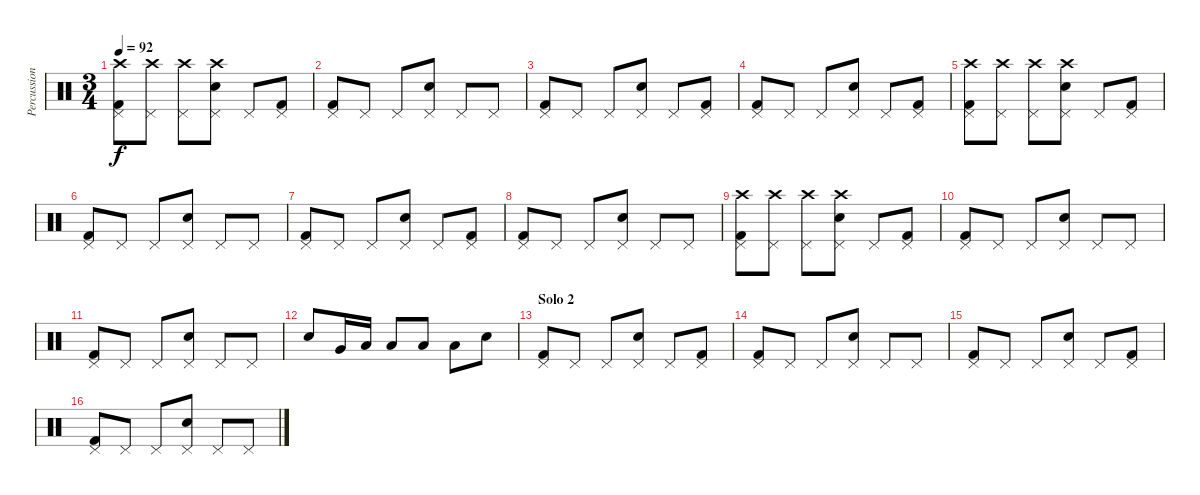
\track ("Percussion" "Percussion") {instrument percussion}
\staff {score}
\articulation defaults
\ts (3 4)
\tempo 92
\clef neutral
\ks c
("Pedal Hi-Hat (hit)" "Kick (hit) 2" "Crash high (hit)").8{dy f} ("Pedal Hi-Hat (hit)" "Crash high (hit)").8 ("Pedal Hi-Hat (hit)" "Crash high (hit)").8 ("Pedal Hi-Hat (hit)" "Electric Snare (hit)" "Crash high (hit)").8 "Pedal Hi-Hat (hit)".8 ("Pedal Hi-Hat (hit)" "Kick (hit) 2").8 |
("Pedal Hi-Hat (hit)" "Kick (hit) 2").8 "Pedal Hi-Hat (hit)".8 "Pedal Hi-Hat (hit)".8 ("Pedal Hi-Hat (hit)" "Electric Snare (hit)").8 "Pedal Hi-Hat (hit)".8 "Pedal Hi-Hat (hit)".8 |
("Pedal Hi-Hat (hit)" "Kick (hit) 2").8 "Pedal Hi-Hat (hit)".8 "Pedal Hi-Hat (hit)".8 ("Pedal Hi-Hat (hit)" "Electric Snare (hit)").8 "Pedal Hi-Hat (hit)".8 ("Pedal Hi-Hat (hit)" "Kick (hit) 2").8 |
("Pedal Hi-Hat (hit)" "Kick (hit) 2").8 "Pedal Hi-Hat (hit)".8 "Pedal Hi-Hat (hit)".8 ("Pedal Hi-Hat (hit)" "Electric Snare (hit)").8 "Pedal Hi-Hat (hit)".8 ("Pedal Hi-Hat (hit)" "Kick (hit) 2").8 |
("Pedal Hi-Hat (hit)" "Kick (hit) 2" "Crash high (hit)").8 ("Pedal Hi-Hat (hit)" "Crash high (hit)").8 ("Pedal Hi-Hat (hit)" "Crash high (hit)").8 ("Pedal Hi-Hat (hit)" "Electric Snare (hit)" "Crash high (hit)").8 "Pedal Hi-Hat (hit)".8 ("Pedal Hi-Hat (hit)" "Kick (hit) 2").8 |
("Pedal Hi-Hat (hit)" "Kick (hit) 2").8 "Pedal Hi-Hat (hit)".8 "Pedal Hi-Hat (hit)".8 ("Pedal Hi-Hat (hit)" "Electric Snare (hit)").8 "Pedal Hi-Hat (hit)".8 "Pedal Hi-Hat (hit)".8 |
("Pedal Hi-Hat (hit)" "Kick (hit) 2").8 "Pedal Hi-Hat (hit)".8 "Pedal Hi-Hat (hit)".8 ("Pedal Hi-Hat (hit)" "Electric Snare (hit)").8 "Pedal Hi-Hat (hit)".8 ("Pedal Hi-Hat (hit)" "Kick (hit) 2").8 |
("Pedal Hi-Hat (hit)" "Kick (hit) 2").8 "Pedal Hi-Hat (hit)".8 "Pedal Hi-Hat (hit)".8 ("Pedal Hi-Hat (hit)" "Electric Snare (hit)").8 "Pedal Hi-Hat (hit)".8 "Pedal Hi-Hat (hit)".8 |
("Pedal Hi-Hat (hit)" "Kick (hit) 2" "Crash high (hit)").8 ("Pedal Hi-Hat (hit)" "Crash high (hit)").8 ("Pedal Hi-Hat (hit)" "Crash high (hit)").8 ("Pedal Hi-Hat (hit)" "Electric Snare (hit)" "Crash high (hit)").8 "Pedal Hi-Hat (hit)".8 ("Pedal Hi-Hat (hit)" "Kick (hit) 2").8 |
("Pedal Hi-Hat (hit)" "Kick (hit) 2").8 "Pedal Hi-Hat (hit)".8 "Pedal Hi-Hat (hit)".8 ("Pedal Hi-Hat (hit)" "Electric Snare (hit)").8 "Pedal Hi-Hat (hit)".8 "Pedal Hi-Hat (hit)".8 |
("Pedal Hi-Hat (hit)" "Kick (hit) 2").8 "Pedal Hi-Hat (hit)".8 "Pedal Hi-Hat (hit)".8 ("Pedal Hi-Hat (hit)" "Electric Snare (hit)").8 "Pedal Hi-Hat (hit)".8 "Pedal Hi-Hat (hit)".8 |
"Electric Snare (hit)".8 "Very Low Tom (hit)".16 "Low Tom (hit)".16 "Low Tom (hit)".8 "Low Tom (hit)".8 "Low Tom (hit)".8 "Snare (hit)".8 |
\section ("" "Solo 2")
("Pedal Hi-Hat (hit)" "Kick (hit) 2").8 "Pedal Hi-Hat (hit)".8 "Pedal Hi-Hat (hit)".8 ("Pedal Hi-Hat (hit)" "Electric Snare (hit)").8 "Pedal Hi-Hat (hit)".8 ("Pedal Hi-Hat (hit)" "Kick (hit) 2").8 |
("Pedal Hi-Hat (hit)" "Kick (hit) 2").8 "Pedal Hi-Hat (hit)".8 "Pedal Hi-Hat (hit)".8 ("Pedal Hi-Hat (hit)" "Electric Snare (hit)").8 "Pedal Hi-Hat (hit)".8 "Pedal Hi-Hat (hit)".8 |
("Pedal Hi-Hat (hit)" "Kick (hit) 2").8 "Pedal Hi-Hat (hit)".8 "Pedal Hi-Hat (hit)".8 ("Pedal Hi-Hat (hit)" "Electric Snare (hit)").8 "Pedal Hi-Hat (hit)".8 ("Pedal Hi-Hat (hit)" "Kick (hit) 2").8 |
("Pedal Hi-Hat (hit)" "Kick (hit) 2").8 "Pedal Hi-Hat (hit)".8 "Pedal Hi-Hat (hit)".8 ("Pedal Hi-Hat (hit)" "Electric Snare (hit)").8 "Pedal Hi-Hat (hit)".8 "Pedal Hi-Hat (hit)".8
